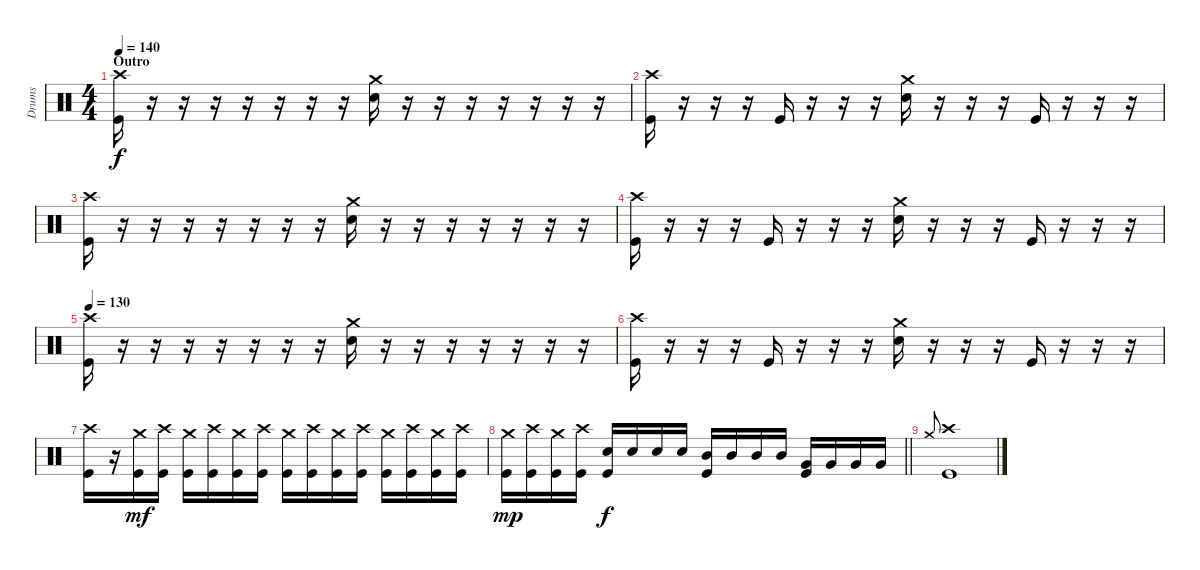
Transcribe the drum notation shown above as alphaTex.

\track ("Drums" "Drums") {instrument percussion}
\staff {score}
\articulation defaults
\ts (4 4)
\section ("" "Outro")
\tempo 140
\clef neutral
\ks c
("Crash high (hit)" "Kick (hit)").16{dy f} r.16 r.16 r.16 r.16 r.16 r.16 r.16 ("Crash medium (hit)" "Electric Snare (hit)").16 r.16 r.16 r.16 r.16 r.16 r.16 r.16 |
("Crash high (hit)" "Kick (hit)").16 r.16 r.16 r.16 "Kick (hit)".16 r.16 r.16 r.16 ("Crash medium (hit)" "Electric Snare (hit)").16 r.16 r.16 r.16 "Kick (hit)".16 r.16 r.16 r.16 |
("Crash high (hit)" "Kick (hit)").16 r.16 r.16 r.16 r.16 r.16 r.16 r.16 ("Crash medium (hit)" "Electric Snare (hit)").16 r.16 r.16 r.16 r.16 r.16 r.16 r.16 |
("Crash high (hit)" "Kick (hit)").16 r.16 r.16 r.16 "Kick (hit)".16 r.16 r.16 r.16 ("Crash medium (hit)" "Electric Snare (hit)").16 r.16 r.16 r.16 "Kick (hit)".16 r.16 r.16 r.16 |
\tempo 130
("Crash high (hit)" "Kick (hit)").16 r.16 r.16 r.16 r.16 r.16 r.16 r.16 ("Crash medium (hit)" "Electric Snare (hit)").16 r.16 r.16 r.16 r.16 r.16 r.16 r.16 |
("Crash high (hit)" "Kick (hit)").16 r.16 r.16 r.16 "Kick (hit)".16 r.16 r.16 r.16 ("Crash medium (hit)" "Electric Snare (hit)").16 r.16 r.16 r.16 "Kick (hit)".16 r.16 r.16 r.16 |
("Crash high (hit)" "Kick (hit)").16 r.16 ("Crash medium (hit)" "Kick (hit)").16{dy mf} ("Crash high (hit)" "Kick (hit)").16 ("Crash medium (hit)" "Kick (hit)").16 ("Crash high (hit)" "Kick (hit)").16 ("Crash medium (hit)" "Kick (hit)").16 ("Crash high (hit)" "Kick (hit)").16 ("Crash medium (hit)" "Kick (hit)").16 ("Crash high (hit)" "Kick (hit)").16 ("Crash medium (hit)" "Kick (hit)").16 ("Crash high (hit)" "Kick (hit)").16 ("Crash medium (hit)" "Kick (hit)").16 ("Crash high (hit)" "Kick (hit)").16 ("Crash medium (hit)" "Kick (hit)").16 ("Crash high (hit)" "Kick (hit)").16 |
\barLineRight lightlight
("Crash medium (hit)" "Kick (hit)").16{dy mp} ("Crash high (hit)" "Kick (hit)").16 ("Crash medium (hit)" "Kick (hit)").16 ("Crash high (hit)" "Kick (hit)").16 ("Electric Snare (hit)" "Kick (hit)").16{dy f} "Electric Snare (hit)".16 "Electric Snare (hit)".16 "Electric Snare (hit)".16 ("Mid Tom (hit)" "Kick (hit)").16 "Mid Tom (hit)".16 "Mid Tom (hit)".16 "Mid Tom (hit)".16 ("Very Low Tom (hit)" "Kick (hit)").16 "Very Low Tom (hit)".16 "Very Low Tom (hit)".16 "Very Low Tom (hit)".16 |
"Crash medium (hit)".8{gr onbeat} ("Crash high (hit)" "Kick (hit)").1
